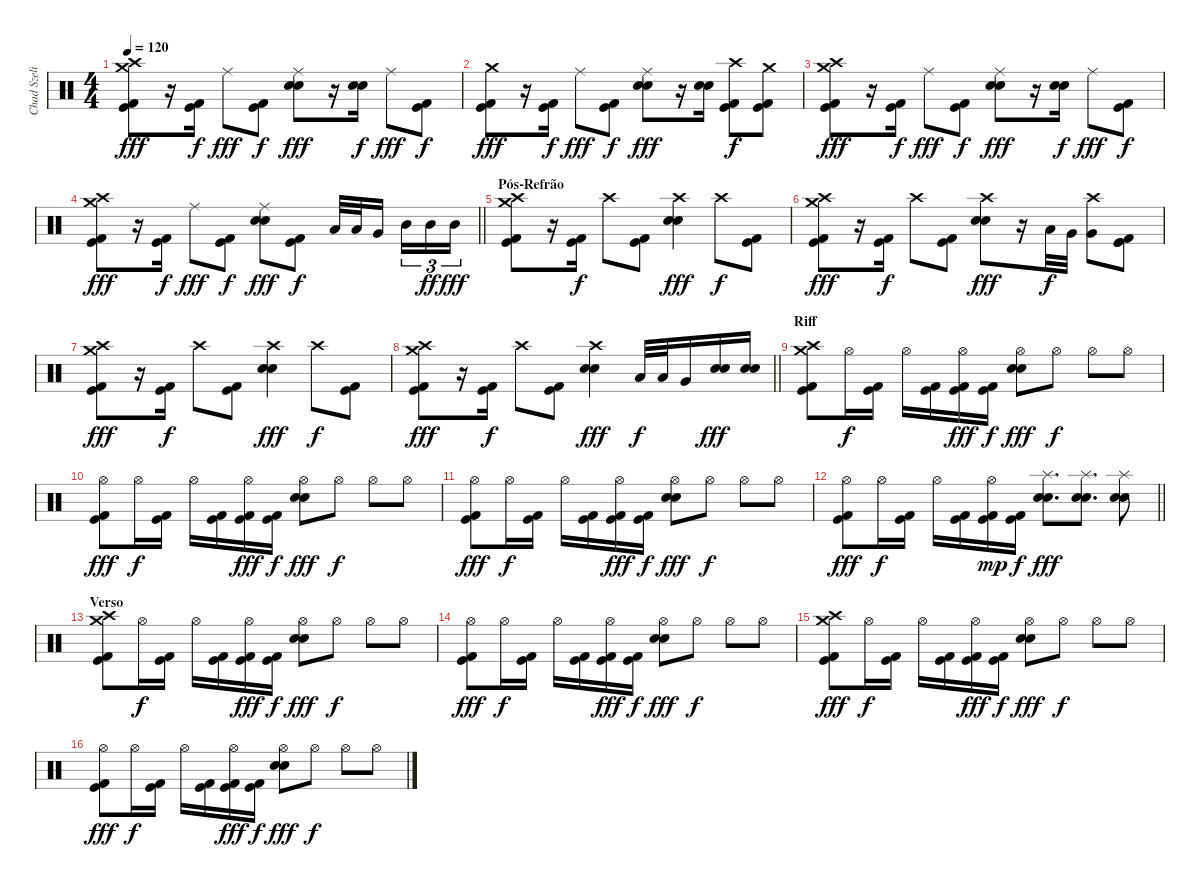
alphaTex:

\track ("Chad Szeliga" "Chad Szeli") {instrument percussion}
\staff {score}
\articulation defaults
\ts (4 4)
\tempo 120
\clef neutral
\ks c
("Crash high (hit)" "Kick (hit) 2" "Kick (hit)" "Crash medium (hit)").8{dy fff} r.16 ("Kick (hit) 2" "Kick (hit)").16{dy f beam Down} "Ride (middle)".8{dy fff} ("Kick (hit) 2" "Kick (hit)").8{dy f} ("Ride (middle)" "Snare (hit) 2" "Snare (hit) 2").8{dy fff} r.16 ("Snare (hit) 2" "Snare (hit) 2").16{dy f} "Ride (middle)".8{dy fff} ("Kick (hit) 2" "Kick (hit)").8{dy f} |
("Crash medium (hit)" "Kick (hit) 2" "Kick (hit)").8{dy fff} r.16 ("Kick (hit) 2" "Kick (hit)").16{dy f beam Down} "Ride (middle)".8{dy fff} ("Kick (hit) 2" "Kick (hit)").8{dy f} ("Ride (middle)" "Snare (hit) 2" "Snare (hit) 2").8{dy fff} r.16 ("Snare (hit) 2" "Snare (hit) 2").16 ("Crash high (hit)" "Kick (hit) 2" "Kick (hit)").8{dy f} ("Crash medium (hit)" "Kick (hit) 2" "Kick (hit)").8 |
("Crash high (hit)" "Kick (hit) 2" "Kick (hit)" "Crash medium (hit)").8{dy fff} r.16 ("Kick (hit) 2" "Kick (hit)").16{dy f beam Down} "Ride (middle)".8{dy fff} ("Kick (hit) 2" "Kick (hit)").8{dy f} ("Ride (middle)" "Snare (hit) 2" "Snare (hit) 2").8{dy fff} r.16 ("Snare (hit) 2" "Snare (hit) 2").16{dy f} "Ride (middle)".8{dy fff} ("Kick (hit) 2" "Kick (hit)").8{dy f} |
\barLineRight lightlight
("Crash high (hit)" "Kick (hit) 2" "Kick (hit)" "Crash medium (hit)").8{dy fff} r.16 ("Kick (hit) 2" "Kick (hit)").16{dy f beam Down} "Ride (middle)".8{dy fff} ("Kick (hit) 2" "Kick (hit)").8{dy f} ("Ride (middle)" "Snare (hit) 2" "Snare (hit) 2").8{dy fff} ("Kick (hit) 2" "Kick (hit)").8{dy f} "Low Tom (hit)".32 "Low Tom (hit)".32 "Very Low Tom (hit)".16{beam splitsecondary} "Mid Tom (hit)".16{tu (3 2)} "Mid Tom (hit)".16{tu (3 2) dy ff} "Mid Tom (hit)".16{tu (3 2) dy fff} |
\section ("" "Pós-Refrão")
("Crash high (hit)" "Kick (hit) 2" "Kick (hit)" "Crash medium (hit)").8 r.16 ("Kick (hit) 2" "Kick (hit)").16{dy f beam Down} "Crash high (hit)".8 ("Kick (hit) 2" "Kick (hit)").8 ("Crash high (hit)" "Snare (hit) 2" "Snare (hit) 2").4{dy fff} "Crash high (hit)".8{dy f} ("Kick (hit) 2" "Kick (hit)").8 |
("Crash high (hit)" "Kick (hit) 2" "Kick (hit)" "Crash medium (hit)").8{dy fff} r.16 ("Kick (hit) 2" "Kick (hit)").16{dy f beam Down} "Crash high (hit)".8 ("Kick (hit) 2" "Kick (hit)").8 ("Crash high (hit)" "Snare (hit) 2" "Snare (hit) 2").8{dy fff} r.16 "Low Tom (hit)".32{dy f} "Very Low Tom (hit)".32 ("Crash high (hit)" "Very Low Tom (hit)").8 ("Kick (hit) 2" "Kick (hit)" "Kick (hit)").8 |
("Crash high (hit)" "Kick (hit) 2" "Kick (hit)" "Crash medium (hit)").8{dy fff} r.16 ("Kick (hit) 2" "Kick (hit)").16{dy f beam Down} "Crash high (hit)".8 ("Kick (hit) 2" "Kick (hit)").8 ("Crash high (hit)" "Snare (hit) 2" "Snare (hit) 2").4{dy fff} "Crash high (hit)".8{dy f} ("Kick (hit) 2" "Kick (hit)").8 |
\barLineRight lightlight
("Crash high (hit)" "Kick (hit) 2" "Kick (hit)" "Crash medium (hit)").8{dy fff} r.16 ("Kick (hit) 2" "Kick (hit)").16{dy f beam Down} "Crash high (hit)".8 ("Kick (hit) 2" "Kick (hit)").8 ("Crash high (hit)" "Snare (hit) 2" "Snare (hit) 2").4{dy fff} "Low Tom (hit)".32{dy f} "Low Tom (hit)".32 "Very Low Tom (hit)".16 ("Snare (hit) 2" "Snare (hit) 2").16{dy fff} ("Snare (hit) 2" "Snare (hit) 2").16 |
\section ("" "Riff")
("Crash high (hit)" "Kick (hit) 2" "Kick (hit)" "Crash medium (hit)").8 "Hi-Hat (open)".16{dy f} ("Kick (hit) 2" "Kick (hit)").16 "Hi-Hat (open)".16 ("Kick (hit) 2" "Kick (hit)").16 ("Kick (hit) 2" "Kick (hit)" "Hi-Hat (open)").16{dy fff} ("Kick (hit) 2" "Kick (hit)").16{dy f} ("Snare (hit) 2" "Snare (hit) 2" "Hi-Hat (open)").8{dy fff} "Hi-Hat (open)".8{dy f} "Hi-Hat (open)".8 "Hi-Hat (open)".8 |
("Kick (hit) 2" "Kick (hit)" "Hi-Hat (open)").8{dy fff} "Hi-Hat (open)".16{dy f} ("Kick (hit) 2" "Kick (hit)").16 "Hi-Hat (open)".16 ("Kick (hit) 2" "Kick (hit)").16 ("Kick (hit) 2" "Kick (hit)" "Hi-Hat (open)").16{dy fff} ("Kick (hit) 2" "Kick (hit)").16{dy f} ("Snare (hit) 2" "Snare (hit) 2" "Hi-Hat (open)").8{dy fff} "Hi-Hat (open)".8{dy f} "Hi-Hat (open)".8 "Hi-Hat (open)".8 |
("Kick (hit) 2" "Kick (hit)" "Hi-Hat (open)").8{dy fff} "Hi-Hat (open)".16{dy f} ("Kick (hit) 2" "Kick (hit)").16 "Hi-Hat (open)".16 ("Kick (hit) 2" "Kick (hit)").16 ("Kick (hit) 2" "Kick (hit)" "Hi-Hat (open)").16{dy fff} ("Kick (hit) 2" "Kick (hit)").16{dy f} ("Snare (hit) 2" "Snare (hit) 2" "Hi-Hat (open)").8{dy fff} "Hi-Hat (open)".8{dy f} "Hi-Hat (open)".8 "Hi-Hat (open)".8 |
\barLineRight lightlight
("Kick (hit) 2" "Kick (hit)" "Hi-Hat (open)").8{dy fff} "Hi-Hat (open)".16{dy f} ("Kick (hit) 2" "Kick (hit)").16 "Hi-Hat (open)".16 ("Kick (hit) 2" "Kick (hit)").16 ("Kick (hit) 2" "Kick (hit)" "Hi-Hat (open)").16{dy mp} ("Kick (hit) 2" "Kick (hit)").16{dy f} ("Splash (hit)" "Snare (hit) 2" "Snare (hit) 2").8{d dy fff} ("Splash (hit)" "Snare (hit) 2" "Snare (hit) 2").8{d} ("Splash (hit)" "Snare (hit) 2" "Snare (hit) 2").8 |
\section ("" "Verso")
("Crash high (hit)" "Kick (hit) 2" "Kick (hit)" "Crash medium (hit)").8 "Hi-Hat (open)".16{dy f} ("Kick (hit) 2" "Kick (hit)").16 "Hi-Hat (open)".16 ("Kick (hit) 2" "Kick (hit)").16 ("Kick (hit) 2" "Kick (hit)" "Hi-Hat (open)").16{dy fff} ("Kick (hit) 2" "Kick (hit)").16{dy f} ("Snare (hit) 2" "Snare (hit) 2" "Hi-Hat (open)").8{dy fff} "Hi-Hat (open)".8{dy f} "Hi-Hat (open)".8 "Hi-Hat (open)".8 |
("Kick (hit) 2" "Kick (hit)" "Hi-Hat (open)").8{dy fff} "Hi-Hat (open)".16{dy f} ("Kick (hit) 2" "Kick (hit)").16 "Hi-Hat (open)".16 ("Kick (hit) 2" "Kick (hit)").16 ("Kick (hit) 2" "Kick (hit)" "Hi-Hat (open)").16{dy fff} ("Kick (hit) 2" "Kick (hit)").16{dy f} ("Snare (hit) 2" "Snare (hit) 2" "Hi-Hat (open)").8{dy fff} "Hi-Hat (open)".8{dy f} "Hi-Hat (open)".8 "Hi-Hat (open)".8 |
("Crash high (hit)" "Kick (hit) 2" "Kick (hit)" "Crash medium (hit)").8{dy fff} "Hi-Hat (open)".16{dy f} ("Kick (hit) 2" "Kick (hit)").16 "Hi-Hat (open)".16 ("Kick (hit) 2" "Kick (hit)").16 ("Kick (hit) 2" "Kick (hit)" "Hi-Hat (open)").16{dy fff} ("Kick (hit) 2" "Kick (hit)").16{dy f} ("Snare (hit) 2" "Snare (hit) 2" "Hi-Hat (open)").8{dy fff} "Hi-Hat (open)".8{dy f} "Hi-Hat (open)".8 "Hi-Hat (open)".8 |
("Kick (hit) 2" "Kick (hit)" "Hi-Hat (open)").8{dy fff} "Hi-Hat (open)".16{dy f} ("Kick (hit) 2" "Kick (hit)").16 "Hi-Hat (open)".16 ("Kick (hit) 2" "Kick (hit)").16 ("Kick (hit) 2" "Kick (hit)" "Hi-Hat (open)").16{dy fff} ("Kick (hit) 2" "Kick (hit)").16{dy f} ("Snare (hit) 2" "Snare (hit) 2" "Hi-Hat (open)").8{dy fff} "Hi-Hat (open)".8{dy f} "Hi-Hat (open)".8 "Hi-Hat (open)".8
